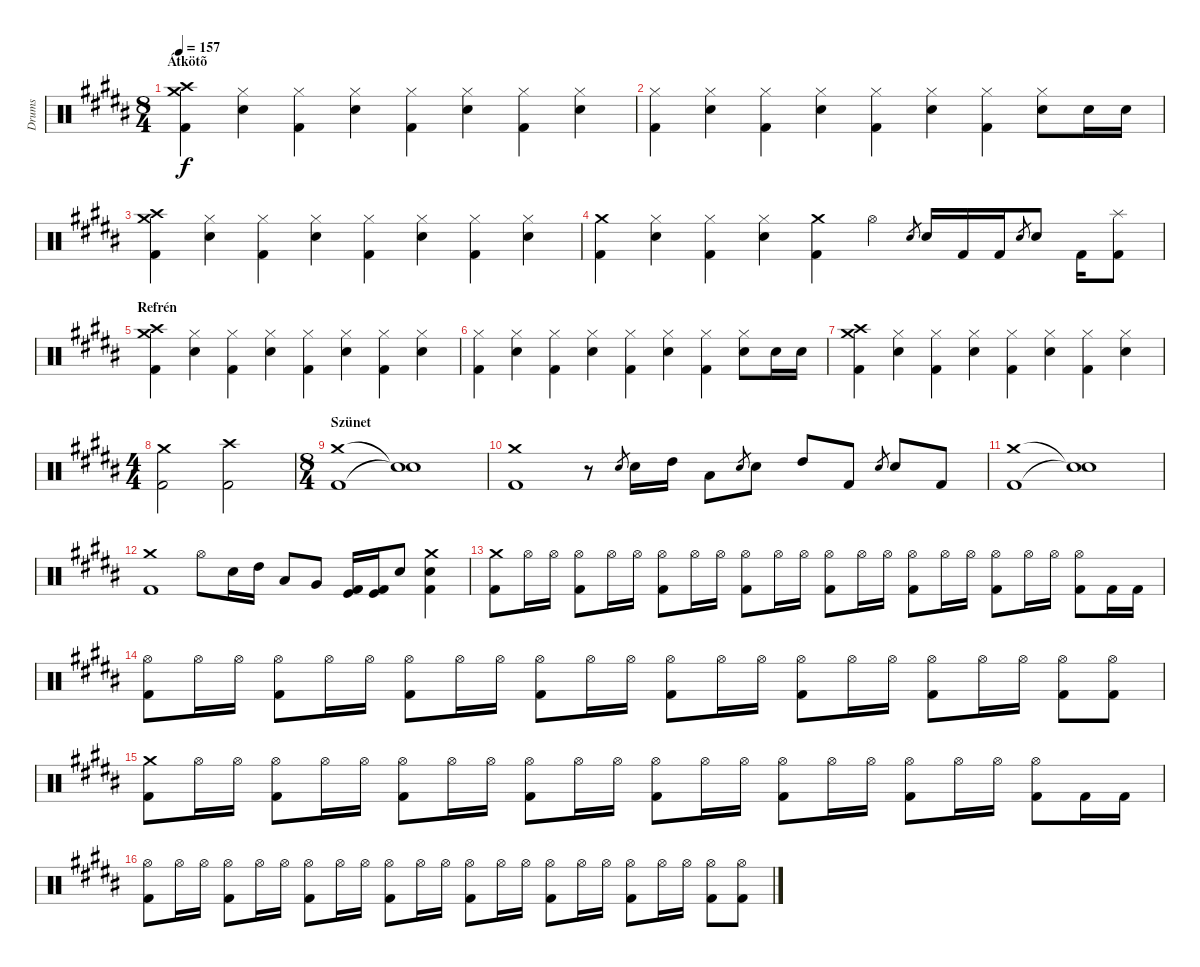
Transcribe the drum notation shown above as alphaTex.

\track ("Drums" "Drums") {instrument percussion}
\staff {score}
\articulation defaults
\ts (8 4)
\section ("" "Átkötõ")
\tempo 157
\clef neutral
\ks g#minor
("Crash medium (hit)" "Crash high (hit)" "Kick (hit) 2").4{dy f} ("Hi-Hat (closed)" "Snare (hit) 2").4 ("Hi-Hat (closed)" "Kick (hit) 2").4 ("Hi-Hat (closed)" "Snare (hit) 2").4 ("Hi-Hat (closed)" "Kick (hit) 2").4 ("Hi-Hat (closed)" "Snare (hit) 2").4 ("Hi-Hat (closed)" "Kick (hit) 2").4 ("Hi-Hat (closed)" "Snare (hit) 2").4 |
("Hi-Hat (closed)" "Kick (hit) 2").4 ("Hi-Hat (closed)" "Snare (hit) 2").4 ("Hi-Hat (closed)" "Kick (hit) 2").4 ("Hi-Hat (closed)" "Snare (hit) 2").4 ("Hi-Hat (closed)" "Kick (hit) 2").4 ("Hi-Hat (closed)" "Snare (hit) 2").4 ("Hi-Hat (closed)" "Kick (hit) 2").4 ("Hi-Hat (closed)" "Snare (hit) 2").8 "Snare (hit) 2".16 "Snare (hit) 2".16 |
("Crash medium (hit)" "Crash high (hit)" "Kick (hit) 2").4 ("Hi-Hat (closed)" "Snare (hit) 2").4 ("Hi-Hat (closed)" "Kick (hit) 2").4 ("Hi-Hat (closed)" "Snare (hit) 2").4 ("Hi-Hat (closed)" "Kick (hit) 2").4 ("Hi-Hat (closed)" "Snare (hit) 2").4 ("Hi-Hat (closed)" "Kick (hit) 2").4 ("Hi-Hat (closed)" "Snare (hit) 2").4 |
("Crash medium (hit)" "Kick (hit) 2").4 ("Hi-Hat (closed)" "Snare (hit) 2").4 ("Hi-Hat (closed)" "Kick (hit) 2").4 ("Hi-Hat (closed)" "Snare (hit) 2").4 ("Crash medium (hit)" "Kick (hit) 2").4 "Hi-Hat (open)".4 "Snare (hit) 2".8{gr} "Snare (hit) 2".16 "Kick (hit) 2".16 "Kick (hit) 2".16 "Snare (hit) 2".8{gr} "Snare (hit) 2".8 "Kick (hit) 2".16 ("Splash (hit)" "Kick (hit) 2").8 |
\section ("" "Refrén")
("Crash medium (hit)" "Crash high (hit)" "Kick (hit) 2").4 ("Hi-Hat (closed)" "Snare (hit) 2").4 ("Hi-Hat (closed)" "Kick (hit) 2").4 ("Hi-Hat (closed)" "Snare (hit) 2").4 ("Hi-Hat (closed)" "Kick (hit) 2").4 ("Hi-Hat (closed)" "Snare (hit) 2").4 ("Hi-Hat (closed)" "Kick (hit) 2").4 ("Hi-Hat (closed)" "Snare (hit) 2").4 |
("Hi-Hat (closed)" "Kick (hit) 2").4 ("Hi-Hat (closed)" "Snare (hit) 2").4 ("Hi-Hat (closed)" "Kick (hit) 2").4 ("Hi-Hat (closed)" "Snare (hit) 2").4 ("Hi-Hat (closed)" "Kick (hit) 2").4 ("Hi-Hat (closed)" "Snare (hit) 2").4 ("Hi-Hat (closed)" "Kick (hit) 2").4 ("Hi-Hat (closed)" "Snare (hit) 2").8 "Snare (hit) 2".16 "Snare (hit) 2".16 |
("Crash medium (hit)" "Crash high (hit)" "Kick (hit) 2").4 ("Hi-Hat (closed)" "Snare (hit) 2").4 ("Hi-Hat (closed)" "Kick (hit) 2").4 ("Hi-Hat (closed)" "Snare (hit) 2").4 ("Hi-Hat (closed)" "Kick (hit) 2").4 ("Hi-Hat (closed)" "Snare (hit) 2").4 ("Hi-Hat (closed)" "Kick (hit) 2").4 ("Hi-Hat (closed)" "Snare (hit) 2").4 |
\ts (4 4)
("Crash medium (hit)" "Kick (hit) 2").2 ("Crash high (hit)" "Kick (hit) 2").2 |
\ts (8 4)
\section ("" "Szünet")
("Crash medium (hit)" "Kick (hit) 2").1 ("Snare (hit)"{t} "Snare (hit)"{t}).1 |
("Crash medium (hit)" "Kick (hit) 2").1 r.8 "Snare (hit) 2".8{gr} "Snare (hit) 2".16 "High Tom (hit)".16 "Low Tom (hit)".8 "Snare (hit) 2".8{gr} "Snare (hit) 2".8 "High Tom (hit)".8 "Kick (hit) 2".8 "Snare (hit) 2".8{gr} "Snare (hit) 2".8 "Kick (hit) 2".8 |
("Crash medium (hit)" "Kick (hit) 2").1 ("Snare (hit)"{t} "Snare (hit)"{t}).1 |
("Crash medium (hit)" "Kick (hit) 2").1 "Hi-Hat (open)".8 "Snare (hit) 2".16 "High Tom (hit)".16 "Low Tom (hit)".8 "Very Low Tom (hit)".8 ("Kick (hit) 2" "Kick (hit)").16 ("Kick (hit) 2" "Kick (hit)").16 "Snare (hit) 2".8 ("Crash medium (hit)" "Snare (hit) 2" "Kick (hit) 2").4 |
("Crash medium (hit)" "Kick (hit) 2").8 "Hi-Hat (open)".16 "Hi-Hat (open)".16 ("Hi-Hat (open)" "Kick (hit) 2").8 "Hi-Hat (open)".16 "Hi-Hat (open)".16 ("Hi-Hat (open)" "Kick (hit) 2").8 "Hi-Hat (open)".16 "Hi-Hat (open)".16 ("Hi-Hat (open)" "Kick (hit) 2").8 "Hi-Hat (open)".16 "Hi-Hat (open)".16 ("Hi-Hat (open)" "Kick (hit) 2").8 "Hi-Hat (open)".16 "Hi-Hat (open)".16 ("Hi-Hat (open)" "Kick (hit) 2").8 "Hi-Hat (open)".16 "Hi-Hat (open)".16 ("Hi-Hat (open)" "Kick (hit) 2").8 "Hi-Hat (open)".16 "Hi-Hat (open)".16 ("Hi-Hat (open)" "Kick (hit) 2").8 "Kick (hit) 2".16 "Kick (hit) 2".16 |
("Hi-Hat (open)" "Kick (hit) 2").8 "Hi-Hat (open)".16 "Hi-Hat (open)".16 ("Hi-Hat (open)" "Kick (hit) 2").8 "Hi-Hat (open)".16 "Hi-Hat (open)".16 ("Hi-Hat (open)" "Kick (hit) 2").8 "Hi-Hat (open)".16 "Hi-Hat (open)".16 ("Hi-Hat (open)" "Kick (hit) 2").8 "Hi-Hat (open)".16 "Hi-Hat (open)".16 ("Hi-Hat (open)" "Kick (hit) 2").8 "Hi-Hat (open)".16 "Hi-Hat (open)".16 ("Hi-Hat (open)" "Kick (hit) 2").8 "Hi-Hat (open)".16 "Hi-Hat (open)".16 ("Hi-Hat (open)" "Kick (hit) 2").8 "Hi-Hat (open)".16 "Hi-Hat (open)".16 ("Hi-Hat (open)" "Kick (hit) 2").8 ("Hi-Hat (open)" "Kick (hit) 2").8 |
("Crash medium (hit)" "Kick (hit) 2").8 "Hi-Hat (open)".16 "Hi-Hat (open)".16 ("Hi-Hat (open)" "Kick (hit) 2").8 "Hi-Hat (open)".16 "Hi-Hat (open)".16 ("Hi-Hat (open)" "Kick (hit) 2").8 "Hi-Hat (open)".16 "Hi-Hat (open)".16 ("Hi-Hat (open)" "Kick (hit) 2").8 "Hi-Hat (open)".16 "Hi-Hat (open)".16 ("Hi-Hat (open)" "Kick (hit) 2").8 "Hi-Hat (open)".16 "Hi-Hat (open)".16 ("Hi-Hat (open)" "Kick (hit) 2").8 "Hi-Hat (open)".16 "Hi-Hat (open)".16 ("Hi-Hat (open)" "Kick (hit) 2").8 "Hi-Hat (open)".16 "Hi-Hat (open)".16 ("Hi-Hat (open)" "Kick (hit) 2").8 "Kick (hit) 2".16 "Kick (hit) 2".16 |
("Hi-Hat (open)" "Kick (hit) 2").8 "Hi-Hat (open)".16 "Hi-Hat (open)".16 ("Hi-Hat (open)" "Kick (hit) 2").8 "Hi-Hat (open)".16 "Hi-Hat (open)".16 ("Hi-Hat (open)" "Kick (hit) 2").8 "Hi-Hat (open)".16 "Hi-Hat (open)".16 ("Hi-Hat (open)" "Kick (hit) 2").8 "Hi-Hat (open)".16 "Hi-Hat (open)".16 ("Hi-Hat (open)" "Kick (hit) 2").8 "Hi-Hat (open)".16 "Hi-Hat (open)".16 ("Hi-Hat (open)" "Kick (hit) 2").8 "Hi-Hat (open)".16 "Hi-Hat (open)".16 ("Hi-Hat (open)" "Kick (hit) 2").8 "Hi-Hat (open)".16 "Hi-Hat (open)".16 ("Hi-Hat (open)" "Kick (hit) 2").8 ("Hi-Hat (open)" "Kick (hit) 2").8
